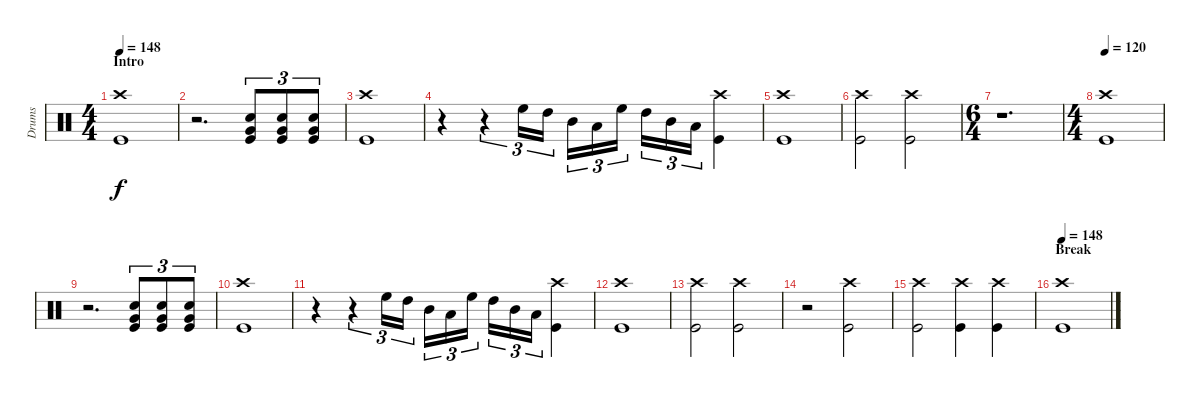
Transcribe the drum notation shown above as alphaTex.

\track ("Drums" "Drums") {instrument percussion}
\staff {score}
\articulation defaults
\ts (4 4)
\section ("" "Intro")
\tempo 148
\tempo 120
\tempo 148
\clef neutral
\ks c
("Crash high (hit)" "Kick (hit)").1{dy f} |
r.2{d} ("Electric Snare (hit)" "Very Low Tom (hit)" "Kick (hit)").8{tu (3 2)} ("Electric Snare (hit)" "Very Low Tom (hit)" "Kick (hit)").8{tu (3 2)} ("Electric Snare (hit)" "Very Low Tom (hit)" "Kick (hit)").8{tu (3 2)} |
("Crash high (hit)" "Kick (hit)").1 |
r.4 r.4{tu (3 2)} "High Floor Tom (hit)".16{tu (3 2)} "High Tom (hit)".16{tu (3 2)} "Mid Tom (hit)".16{tu (3 2)} "Low Tom (hit)".16{tu (3 2)} "High Floor Tom (hit)".16{tu (3 2)} "High Tom (hit)".16{tu (3 2)} "Mid Tom (hit)".16{tu (3 2)} "Low Tom (hit)".16{tu (3 2)} ("Crash high (hit)" "Kick (hit)").4 |
("Crash high (hit)" "Kick (hit)").1 |
("Crash high (hit)" "Kick (hit)").2 ("Crash high (hit)" "Kick (hit)").2 |
\ts (6 4)
r.1{d} |
\ts (4 4)
\tempo 120
("Crash high (hit)" "Kick (hit)").1 |
r.2{d} ("Electric Snare (hit)" "Very Low Tom (hit)" "Kick (hit)").8{tu (3 2)} ("Electric Snare (hit)" "Very Low Tom (hit)" "Kick (hit)").8{tu (3 2)} ("Electric Snare (hit)" "Very Low Tom (hit)" "Kick (hit)").8{tu (3 2)} |
("Crash high (hit)" "Kick (hit)").1 |
r.4 r.4{tu (3 2)} "High Floor Tom (hit)".16{tu (3 2)} "High Tom (hit)".16{tu (3 2)} "Mid Tom (hit)".16{tu (3 2)} "Low Tom (hit)".16{tu (3 2)} "High Floor Tom (hit)".16{tu (3 2)} "High Tom (hit)".16{tu (3 2)} "Mid Tom (hit)".16{tu (3 2)} "Low Tom (hit)".16{tu (3 2)} ("Crash high (hit)" "Kick (hit)").4 |
("Crash high (hit)" "Kick (hit)").1 |
("Crash high (hit)" "Kick (hit)").2 ("Crash high (hit)" "Kick (hit)").2 |
r.2 ("Crash high (hit)" "Kick (hit)").2 |
("Crash high (hit)" "Kick (hit)").2 ("Crash high (hit)" "Kick (hit)").4 ("Crash high (hit)" "Kick (hit)").4 |
\section ("" "Break")
\tempo 148
("Crash high (hit)" "Kick (hit)").1
